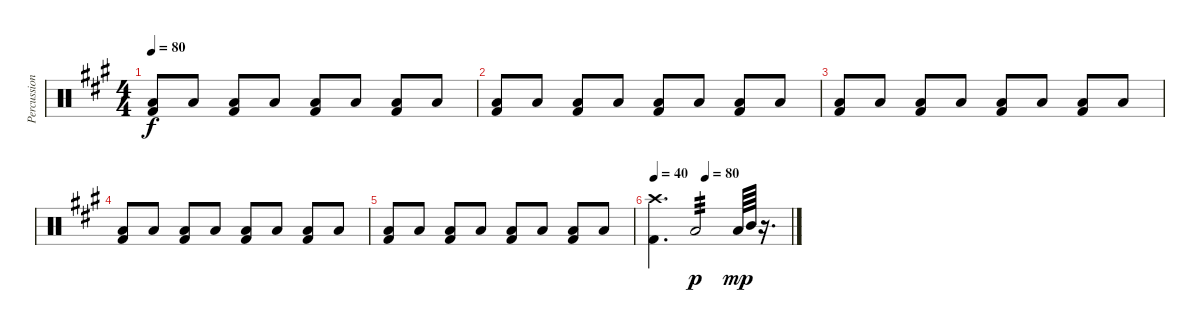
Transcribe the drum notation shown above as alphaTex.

\track ("Percussion" "Percussion") {instrument percussion}
\staff {score}
\articulation defaults
\ts (4 4)
\tempo 80
\clef neutral
\ks a
("Low Floor Tom (hit)" "Kick (hit) 2").8{dy f} "Low Floor Tom (hit)".8 ("Low Floor Tom (hit)" "Kick (hit) 2").8 "Low Floor Tom (hit)".8 ("Low Floor Tom (hit)" "Kick (hit) 2").8 "Low Floor Tom (hit)".8 ("Low Floor Tom (hit)" "Kick (hit) 2").8 "Low Floor Tom (hit)".8 |
("Low Floor Tom (hit)" "Kick (hit) 2").8 "Low Floor Tom (hit)".8 ("Low Floor Tom (hit)" "Kick (hit) 2").8 "Low Floor Tom (hit)".8 ("Low Floor Tom (hit)" "Kick (hit) 2").8 "Low Floor Tom (hit)".8 ("Low Floor Tom (hit)" "Kick (hit) 2").8 "Low Floor Tom (hit)".8 |
("Low Floor Tom (hit)" "Kick (hit) 2").8 "Low Floor Tom (hit)".8 ("Low Floor Tom (hit)" "Kick (hit) 2").8 "Low Floor Tom (hit)".8 ("Low Floor Tom (hit)" "Kick (hit) 2").8 "Low Floor Tom (hit)".8 ("Low Floor Tom (hit)" "Kick (hit) 2").8 "Low Floor Tom (hit)".8 |
("Low Floor Tom (hit)" "Kick (hit) 2").8 "Low Floor Tom (hit)".8 ("Low Floor Tom (hit)" "Kick (hit) 2").8 "Low Floor Tom (hit)".8 ("Low Floor Tom (hit)" "Kick (hit) 2").8 "Low Floor Tom (hit)".8 ("Low Floor Tom (hit)" "Kick (hit) 2").8 "Low Floor Tom (hit)".8 |
("Low Floor Tom (hit)" "Kick (hit) 2").8 "Low Floor Tom (hit)".8 ("Low Floor Tom (hit)" "Kick (hit) 2").8 "Low Floor Tom (hit)".8 ("Low Floor Tom (hit)" "Kick (hit) 2").8 "Low Floor Tom (hit)".8 ("Low Floor Tom (hit)" "Kick (hit) 2").8 "Low Floor Tom (hit)".8 |
\tempo 40
\tempo (80 0.375)
("Crash high (hit)" "Kick (hit) 2").4{d} "Low Tom (hit)".2{tp 3 dy p} "Low Tom (hit)".64{dy mp} "Mid Tom (hit)".64 r.16{d}
